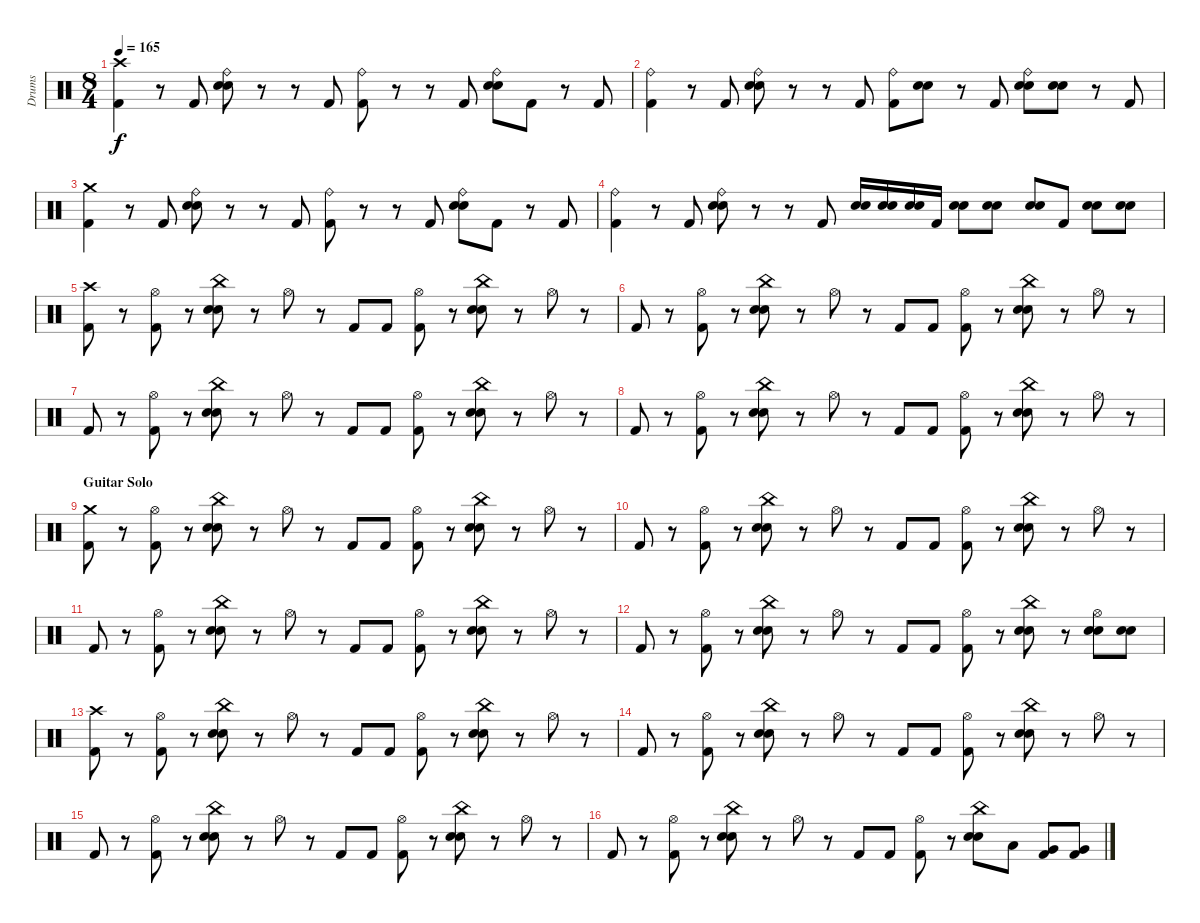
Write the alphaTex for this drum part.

\track ("Drums" "Drums") {instrument percussion}
\staff {score}
\articulation defaults
\ts (8 4)
\tempo 165
\clef neutral
\ks c
("Crash high (hit)" "Kick (hit) 2").4{dy f} r.8 "Kick (hit) 2".8 ("Ride (bell)" "Electric Snare (hit)" "Snare (hit) 2").8 r.8 r.8 "Kick (hit) 2".8 ("Ride (bell)" "Kick (hit) 2").8 r.8 r.8 "Kick (hit) 2".8 ("Ride (bell)" "Electric Snare (hit)" "Snare (hit) 2").8 "Kick (hit) 2".8 r.8 "Kick (hit) 2".8 |
("Ride (bell)" "Kick (hit) 2").4 r.8 "Kick (hit) 2".8 ("Ride (bell)" "Electric Snare (hit)" "Snare (hit) 2").8 r.8 r.8 "Kick (hit) 2".8 ("Ride (bell)" "Kick (hit) 2").8 ("Electric Snare (hit)" "Snare (hit) 2").8 r.8 "Kick (hit) 2".8 ("Ride (bell)" "Electric Snare (hit)" "Snare (hit) 2").8 ("Electric Snare (hit)" "Snare (hit) 2").8 r.8 "Kick (hit) 2".8 |
("Crash medium (hit)" "Kick (hit) 2").4 r.8 "Kick (hit) 2".8 ("Ride (bell)" "Electric Snare (hit)" "Snare (hit) 2").8 r.8 r.8 "Kick (hit) 2".8 ("Ride (bell)" "Kick (hit) 2").8 r.8 r.8 "Kick (hit) 2".8 ("Ride (bell)" "Electric Snare (hit)" "Snare (hit) 2").8 "Kick (hit) 2".8 r.8 "Kick (hit) 2".8 |
("Ride (bell)" "Kick (hit) 2").4 r.8 "Kick (hit) 2".8 ("Ride (bell)" "Electric Snare (hit)" "Snare (hit) 2").8 r.8 r.8 "Kick (hit) 2".8 ("Electric Snare (hit)" "Snare (hit) 2").16 ("Electric Snare (hit)" "Snare (hit) 2").16 ("Electric Snare (hit)" "Snare (hit) 2").16 "Kick (hit) 2".16 ("Electric Snare (hit)" "Snare (hit) 2").8 ("Electric Snare (hit)" "Snare (hit) 2").8 ("Snare (hit) 2" "Electric Snare (hit)").8 "Kick (hit) 2".8 ("Snare (hit) 2" "Electric Snare (hit)").8 ("Snare (hit) 2" "Electric Snare (hit)").8 |
("Crash high (hit)" "Kick (hit) 2").8 r.8 ("Hi-Hat (open)" "Kick (hit) 2").8 r.8 ("China (hit)" "Electric Snare (hit)" "Snare (hit) 2").8 r.8 "Hi-Hat (open)".8 r.8 "Kick (hit) 2".8 "Kick (hit) 2".8 ("Hi-Hat (open)" "Kick (hit) 2").8 r.8 ("China (hit)" "Electric Snare (hit)" "Snare (hit) 2").8 r.8 "Hi-Hat (open)".8 r.8 |
"Kick (hit) 2".8 r.8 ("Hi-Hat (open)" "Kick (hit) 2").8 r.8 ("China (hit)" "Electric Snare (hit)" "Snare (hit) 2").8 r.8 "Hi-Hat (open)".8 r.8 "Kick (hit) 2".8 "Kick (hit) 2".8 ("Hi-Hat (open)" "Kick (hit) 2").8 r.8 ("China (hit)" "Electric Snare (hit)" "Snare (hit) 2").8 r.8 "Hi-Hat (open)".8 r.8 |
"Kick (hit) 2".8 r.8 ("Hi-Hat (open)" "Kick (hit) 2").8 r.8 ("China (hit)" "Electric Snare (hit)" "Snare (hit) 2").8 r.8 "Hi-Hat (open)".8 r.8 "Kick (hit) 2".8 "Kick (hit) 2".8 ("Hi-Hat (open)" "Kick (hit) 2").8 r.8 ("China (hit)" "Electric Snare (hit)" "Snare (hit) 2").8 r.8 "Hi-Hat (open)".8 r.8 |
"Kick (hit) 2".8 r.8 ("Hi-Hat (open)" "Kick (hit) 2").8 r.8 ("China (hit)" "Electric Snare (hit)" "Snare (hit) 2").8 r.8 "Hi-Hat (open)".8 r.8 "Kick (hit) 2".8 "Kick (hit) 2".8 ("Hi-Hat (open)" "Kick (hit) 2").8 r.8 ("China (hit)" "Electric Snare (hit)" "Snare (hit) 2").8 r.8 "Hi-Hat (open)".8 r.8 |
\section ("" "Guitar Solo")
("Crash medium (hit)" "Kick (hit) 2").8 r.8 ("Hi-Hat (open)" "Kick (hit) 2").8 r.8 ("China (hit)" "Electric Snare (hit)" "Snare (hit) 2").8 r.8 "Hi-Hat (open)".8 r.8 "Kick (hit) 2".8 "Kick (hit) 2".8 ("Hi-Hat (open)" "Kick (hit) 2").8 r.8 ("China (hit)" "Electric Snare (hit)" "Snare (hit) 2").8 r.8 "Hi-Hat (open)".8 r.8 |
"Kick (hit) 2".8 r.8 ("Hi-Hat (open)" "Kick (hit) 2").8 r.8 ("China (hit)" "Electric Snare (hit)" "Snare (hit) 2").8 r.8 "Hi-Hat (open)".8 r.8 "Kick (hit) 2".8 "Kick (hit) 2".8 ("Hi-Hat (open)" "Kick (hit) 2").8 r.8 ("China (hit)" "Electric Snare (hit)" "Snare (hit) 2").8 r.8 "Hi-Hat (open)".8 r.8 |
"Kick (hit) 2".8 r.8 ("Hi-Hat (open)" "Kick (hit) 2").8 r.8 ("China (hit)" "Electric Snare (hit)" "Snare (hit) 2").8 r.8 "Hi-Hat (open)".8 r.8 "Kick (hit) 2".8 "Kick (hit) 2".8 ("Hi-Hat (open)" "Kick (hit) 2").8 r.8 ("China (hit)" "Electric Snare (hit)" "Snare (hit) 2").8 r.8 "Hi-Hat (open)".8 r.8 |
"Kick (hit) 2".8 r.8 ("Hi-Hat (open)" "Kick (hit) 2").8 r.8 ("China (hit)" "Electric Snare (hit)" "Snare (hit) 2").8 r.8 "Hi-Hat (open)".8 r.8 "Kick (hit) 2".8 "Kick (hit) 2".8 ("Hi-Hat (open)" "Kick (hit) 2").8 r.8 ("China (hit)" "Electric Snare (hit)" "Snare (hit) 2").8 r.8 ("Hi-Hat (open)" "Electric Snare (hit)" "Snare (hit) 2").8 ("Electric Snare (hit)" "Snare (hit) 2").8 |
("Crash high (hit)" "Kick (hit) 2").8 r.8 ("Hi-Hat (open)" "Kick (hit) 2").8 r.8 ("China (hit)" "Electric Snare (hit)" "Snare (hit) 2").8 r.8 "Hi-Hat (open)".8 r.8 "Kick (hit) 2".8 "Kick (hit) 2".8 ("Hi-Hat (open)" "Kick (hit) 2").8 r.8 ("China (hit)" "Electric Snare (hit)" "Snare (hit) 2").8 r.8 "Hi-Hat (open)".8 r.8 |
"Kick (hit) 2".8 r.8 ("Hi-Hat (open)" "Kick (hit) 2").8 r.8 ("China (hit)" "Electric Snare (hit)" "Snare (hit) 2").8 r.8 "Hi-Hat (open)".8 r.8 "Kick (hit) 2".8 "Kick (hit) 2".8 ("Hi-Hat (open)" "Kick (hit) 2").8 r.8 ("China (hit)" "Electric Snare (hit)" "Snare (hit) 2").8 r.8 "Hi-Hat (open)".8 r.8 |
"Kick (hit) 2".8 r.8 ("Hi-Hat (open)" "Kick (hit) 2").8 r.8 ("China (hit)" "Electric Snare (hit)" "Snare (hit) 2").8 r.8 "Hi-Hat (open)".8 r.8 "Kick (hit) 2".8 "Kick (hit) 2".8 ("Hi-Hat (open)" "Kick (hit) 2").8 r.8 ("China (hit)" "Electric Snare (hit)" "Snare (hit) 2").8 r.8 "Hi-Hat (open)".8 r.8 |
"Kick (hit) 2".8 r.8 ("Hi-Hat (open)" "Kick (hit) 2").8 r.8 ("China (hit)" "Electric Snare (hit)" "Snare (hit) 2").8 r.8 "Hi-Hat (open)".8 r.8 "Kick (hit) 2".8 "Kick (hit) 2".8 ("Hi-Hat (open)" "Kick (hit) 2").8 r.8 ("China (hit)" "Electric Snare (hit)" "Snare (hit) 2").8 "Low Tom (hit)".8 ("Very Low Tom (hit)" "Kick (hit) 2").8 ("Very Low Tom (hit)" "Kick (hit) 2").8
